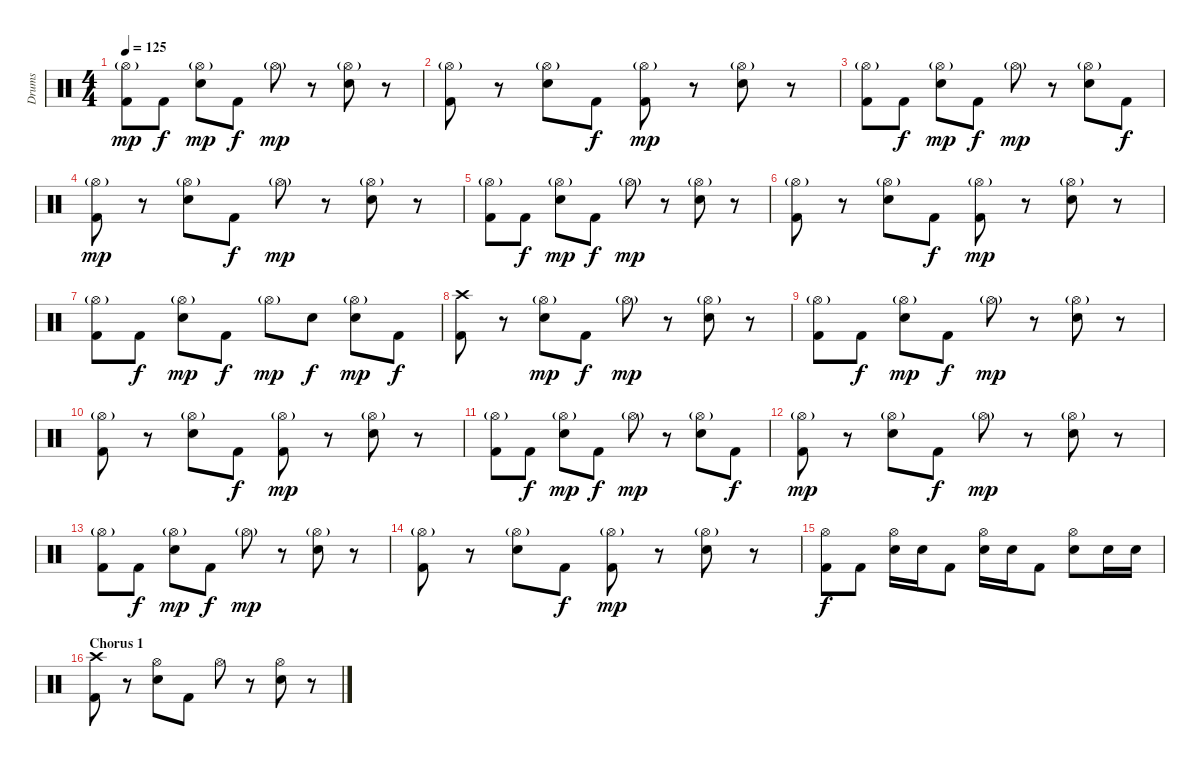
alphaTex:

\track ("Drums" "Drums") {instrument percussion}
\staff {score}
\articulation defaults
\ts (4 4)
\tempo 125
\clef neutral
\ks c
("Hi-Hat (open)"{g} "Kick (hit) 2").8{dy mp} "Kick (hit) 2".8{dy f} ("Hi-Hat (open)"{g} "Snare (hit) 2").8{dy mp} "Kick (hit) 2".8{dy f} "Hi-Hat (open)"{g}.8{dy mp} r.8 ("Hi-Hat (open)"{g} "Snare (hit) 2").8 r.8 |
("Hi-Hat (open)"{g} "Kick (hit) 2").8 r.8 ("Hi-Hat (open)"{g} "Snare (hit) 2").8 "Kick (hit) 2".8{dy f} ("Hi-Hat (open)"{g} "Kick (hit) 2").8{dy mp} r.8 ("Hi-Hat (open)"{g} "Snare (hit) 2").8 r.8 |
("Hi-Hat (open)"{g} "Kick (hit) 2").8 "Kick (hit) 2".8{dy f} ("Hi-Hat (open)"{g} "Snare (hit) 2").8{dy mp} "Kick (hit) 2".8{dy f} "Hi-Hat (open)"{g}.8{dy mp} r.8 ("Hi-Hat (open)"{g} "Snare (hit) 2").8 "Kick (hit) 2".8{dy f} |
("Hi-Hat (open)"{g} "Kick (hit) 2").8{dy mp} r.8 ("Hi-Hat (open)"{g} "Snare (hit) 2").8 "Kick (hit) 2".8{dy f} "Hi-Hat (open)"{g}.8{dy mp} r.8 ("Hi-Hat (open)"{g} "Snare (hit) 2").8 r.8 |
("Hi-Hat (open)"{g} "Kick (hit) 2").8 "Kick (hit) 2".8{dy f} ("Hi-Hat (open)"{g} "Snare (hit) 2").8{dy mp} "Kick (hit) 2".8{dy f} "Hi-Hat (open)"{g}.8{dy mp} r.8 ("Hi-Hat (open)"{g} "Snare (hit) 2").8 r.8 |
("Hi-Hat (open)"{g} "Kick (hit) 2").8 r.8 ("Hi-Hat (open)"{g} "Snare (hit) 2").8 "Kick (hit) 2".8{dy f} ("Hi-Hat (open)"{g} "Kick (hit) 2").8{dy mp} r.8 ("Hi-Hat (open)"{g} "Snare (hit) 2").8 r.8 |
("Hi-Hat (open)"{g} "Kick (hit) 2").8 "Kick (hit) 2".8{dy f} ("Hi-Hat (open)"{g} "Snare (hit) 2").8{dy mp} "Kick (hit) 2".8{dy f} "Hi-Hat (open)"{g}.8{dy mp} "Snare (hit) 2".8{dy f} ("Hi-Hat (open)"{g} "Snare (hit) 2").8{dy mp} "Kick (hit) 2".8{dy f} |
("Crash high (hit)" "Kick (hit) 2").8 r.8 ("Hi-Hat (open)"{g} "Snare (hit) 2").8{dy mp} "Kick (hit) 2".8{dy f} "Hi-Hat (open)"{g}.8{dy mp} r.8 ("Hi-Hat (open)"{g} "Snare (hit) 2").8 r.8 |
("Hi-Hat (open)"{g} "Kick (hit) 2").8 "Kick (hit) 2".8{dy f} ("Hi-Hat (open)"{g} "Snare (hit) 2").8{dy mp} "Kick (hit) 2".8{dy f} "Hi-Hat (open)"{g}.8{dy mp} r.8 ("Hi-Hat (open)"{g} "Snare (hit) 2").8 r.8 |
("Hi-Hat (open)"{g} "Kick (hit) 2").8 r.8 ("Hi-Hat (open)"{g} "Snare (hit) 2").8 "Kick (hit) 2".8{dy f} ("Hi-Hat (open)"{g} "Kick (hit) 2").8{dy mp} r.8 ("Hi-Hat (open)"{g} "Snare (hit) 2").8 r.8 |
("Hi-Hat (open)"{g} "Kick (hit) 2").8 "Kick (hit) 2".8{dy f} ("Hi-Hat (open)"{g} "Snare (hit) 2").8{dy mp} "Kick (hit) 2".8{dy f} "Hi-Hat (open)"{g}.8{dy mp} r.8 ("Hi-Hat (open)"{g} "Snare (hit) 2").8 "Kick (hit) 2".8{dy f} |
("Hi-Hat (open)"{g} "Kick (hit) 2").8{dy mp} r.8 ("Hi-Hat (open)"{g} "Snare (hit) 2").8 "Kick (hit) 2".8{dy f} "Hi-Hat (open)"{g}.8{dy mp} r.8 ("Hi-Hat (open)"{g} "Snare (hit) 2").8 r.8 |
("Hi-Hat (open)"{g} "Kick (hit) 2").8 "Kick (hit) 2".8{dy f} ("Hi-Hat (open)"{g} "Snare (hit) 2").8{dy mp} "Kick (hit) 2".8{dy f} "Hi-Hat (open)"{g}.8{dy mp} r.8 ("Hi-Hat (open)"{g} "Snare (hit) 2").8 r.8 |
("Hi-Hat (open)"{g} "Kick (hit) 2").8 r.8 ("Hi-Hat (open)"{g} "Snare (hit) 2").8 "Kick (hit) 2".8{dy f} ("Hi-Hat (open)"{g} "Kick (hit) 2").8{dy mp} r.8 ("Hi-Hat (open)"{g} "Snare (hit) 2").8 r.8 |
("Hi-Hat (open)" "Kick (hit) 2").8{dy f} "Kick (hit) 2".8 ("Hi-Hat (open)" "Snare (hit) 2").16 "Snare (hit) 2".16 "Kick (hit) 2".8 ("Hi-Hat (open)" "Snare (hit) 2").16 "Snare (hit) 2".16 "Kick (hit) 2".8 ("Hi-Hat (open)" "Snare (hit) 2").8 "Snare (hit) 2".16 "Snare (hit) 2".16 |
\section ("" "Chorus 1")
("Crash high (hit)" "Kick (hit) 2").8 r.8 ("Hi-Hat (open)" "Snare (hit) 2").8 "Kick (hit) 2".8 "Hi-Hat (open)".8 r.8 ("Hi-Hat (open)" "Snare (hit) 2").8 r.8
